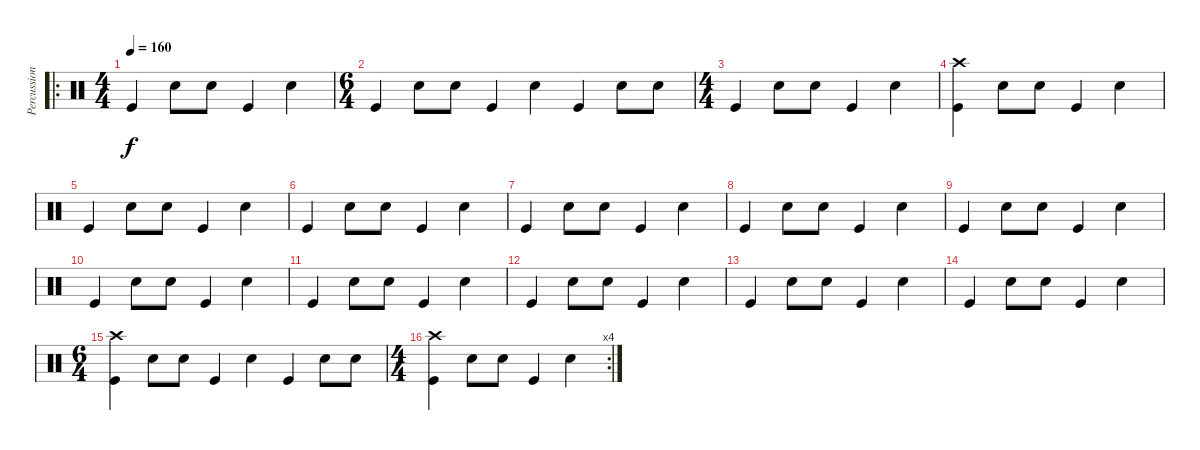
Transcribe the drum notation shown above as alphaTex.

\track ("Percussion" "Percussion") {instrument percussion}
\staff {score}
\articulation defaults
\ro
\ts (4 4)
\tempo 160
\clef neutral
\ks c "Kick (hit)".4{dy f} "Snare (hit) 2".8 "Snare (hit) 2".8 "Kick (hit)".4 "Snare (hit) 2".4
|
\ts (6 4)
"Kick (hit)".4 "Snare (hit) 2".8 "Snare (hit) 2".8 "Kick (hit)".4 "Snare (hit) 2".4 "Kick (hit)".4 "Snare (hit) 2".8 "Snare (hit) 2".8 |
\ts (4 4)
"Kick (hit)".4 "Snare (hit) 2".8 "Snare (hit) 2".8 "Kick (hit)".4 "Snare (hit) 2".4 |
("Crash high (hit)" "Kick (hit)").4 "Snare (hit) 2".8 "Snare (hit) 2".8 "Kick (hit)".4 "Snare (hit) 2".4 |
"Kick (hit)".4 "Snare (hit) 2".8 "Snare (hit) 2".8 "Kick (hit)".4 "Snare (hit) 2".4 |
"Kick (hit)".4 "Snare (hit) 2".8 "Snare (hit) 2".8 "Kick (hit)".4 "Snare (hit) 2".4 |
"Kick (hit)".4 "Snare (hit) 2".8 "Snare (hit) 2".8 "Kick (hit)".4 "Snare (hit) 2".4 |
"Kick (hit)".4 "Snare (hit) 2".8 "Snare (hit) 2".8 "Kick (hit)".4 "Snare (hit) 2".4 |
"Kick (hit)".4 "Snare (hit) 2".8 "Snare (hit) 2".8 "Kick (hit)".4 "Snare (hit) 2".4 |
"Kick (hit)".4 "Snare (hit) 2".8 "Snare (hit) 2".8 "Kick (hit)".4 "Snare (hit) 2".4 |
"Kick (hit)".4 "Snare (hit) 2".8 "Snare (hit) 2".8 "Kick (hit)".4 "Snare (hit) 2".4 |
"Kick (hit)".4 "Snare (hit) 2".8 "Snare (hit) 2".8 "Kick (hit)".4 "Snare (hit) 2".4 |
"Kick (hit)".4 "Snare (hit) 2".8 "Snare (hit) 2".8 "Kick (hit)".4 "Snare (hit) 2".4 |
"Kick (hit)".4 "Snare (hit) 2".8 "Snare (hit) 2".8 "Kick (hit)".4 "Snare (hit) 2".4 |
\ts (6 4)
("Crash high (hit)" "Kick (hit)").4 "Snare (hit) 2".8 "Snare (hit) 2".8 "Kick (hit)".4 "Snare (hit) 2".4 "Kick (hit)".4 "Snare (hit) 2".8 "Snare (hit) 2".8 |
\rc 4
\ts (4 4)
("Crash high (hit)" "Kick (hit)").4 "Snare (hit) 2".8 "Snare (hit) 2".8 "Kick (hit)".4 "Snare (hit) 2".4
